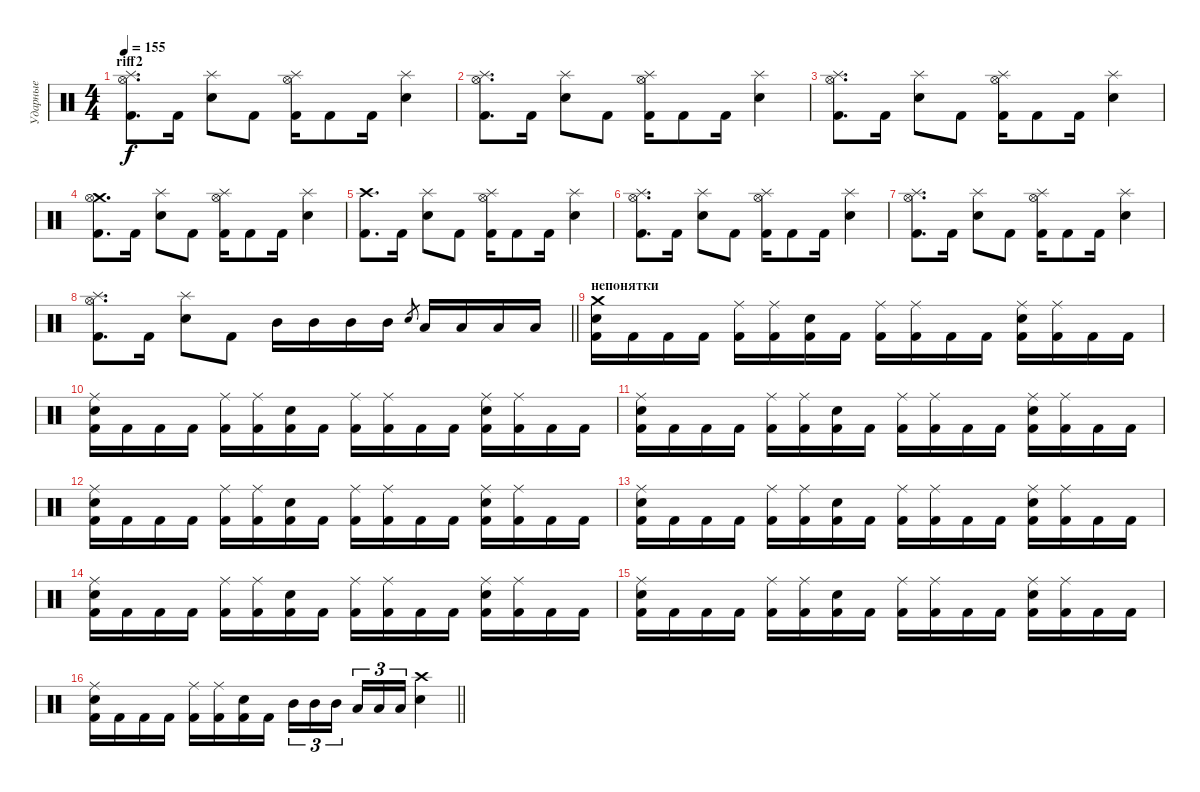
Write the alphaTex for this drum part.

\track ("Ударные" "Ударные") {instrument percussion}
\staff {score}
\articulation defaults
\ts (4 4)
\section ("" "riff2")
\tempo 155
\clef neutral
\ks c
("Splash (hit)" "Hi-Hat (open)" "Kick (hit) 2").8{d dy f} "Kick (hit) 2".16 ("Splash (hit)" "Electric Snare (hit)").8 "Kick (hit) 2".8 ("Splash (hit)" "Hi-Hat (open)" "Kick (hit) 2").16 "Kick (hit) 2".8 "Kick (hit) 2".16 ("Splash (hit)" "Electric Snare (hit)").4 |
("Splash (hit)" "Hi-Hat (open)" "Kick (hit) 2").8{d} "Kick (hit) 2".16 ("Splash (hit)" "Electric Snare (hit)").8 "Kick (hit) 2".8 ("Splash (hit)" "Hi-Hat (open)" "Kick (hit) 2").16 "Kick (hit) 2".8 "Kick (hit) 2".16 ("Splash (hit)" "Electric Snare (hit)").4 |
("Splash (hit)" "Hi-Hat (open)" "Kick (hit) 2").8{d} "Kick (hit) 2".16 ("Splash (hit)" "Electric Snare (hit)").8 "Kick (hit) 2".8 ("Splash (hit)" "Hi-Hat (open)" "Kick (hit) 2").16 "Kick (hit) 2".8 "Kick (hit) 2".16 ("Splash (hit)" "Electric Snare (hit)").4 |
("Crash medium (hit)" "Hi-Hat (open)" "Kick (hit) 2").8{d} "Kick (hit) 2".16 ("Splash (hit)" "Electric Snare (hit)").8 "Kick (hit) 2".8 ("Splash (hit)" "Hi-Hat (open)" "Kick (hit) 2").16 "Kick (hit) 2".8 "Kick (hit) 2".16 ("Splash (hit)" "Electric Snare (hit)").4 |
("Crash high (hit)" "Kick (hit) 2").8{d} "Kick (hit) 2".16 ("Splash (hit)" "Electric Snare (hit)").8 "Kick (hit) 2".8 ("Splash (hit)" "Hi-Hat (open)" "Kick (hit) 2").16 "Kick (hit) 2".8 "Kick (hit) 2".16 ("Splash (hit)" "Electric Snare (hit)").4 |
("Splash (hit)" "Hi-Hat (open)" "Kick (hit) 2").8{d} "Kick (hit) 2".16 ("Splash (hit)" "Electric Snare (hit)").8 "Kick (hit) 2".8 ("Splash (hit)" "Hi-Hat (open)" "Kick (hit) 2").16 "Kick (hit) 2".8 "Kick (hit) 2".16 ("Splash (hit)" "Electric Snare (hit)").4 |
("Splash (hit)" "Hi-Hat (open)" "Kick (hit) 2").8{d} "Kick (hit) 2".16 ("Splash (hit)" "Electric Snare (hit)").8 "Kick (hit) 2".8 ("Splash (hit)" "Hi-Hat (open)" "Kick (hit) 2").16 "Kick (hit) 2".8 "Kick (hit) 2".16 ("Splash (hit)" "Electric Snare (hit)").4 |
\barLineRight lightlight
("Splash (hit)" "Hi-Hat (open)" "Kick (hit) 2").8{d} "Kick (hit) 2".16 ("Splash (hit)" "Electric Snare (hit)").8 "Kick (hit) 2".8 "Mid Tom (hit)".16 "Mid Tom (hit)".16 "Mid Tom (hit)".16 "Mid Tom (hit)".16 "Electric Snare (hit)".8{gr} "Low Tom (hit)".16 "Low Tom (hit)".16 "Low Tom (hit)".16 "Low Tom (hit)".16 |
\section ("" "непонятки")
("Crash medium (hit)" "Electric Snare (hit)" "Kick (hit) 2").16 "Kick (hit) 2".16 "Kick (hit) 2".16 "Kick (hit) 2".16 ("Ride (middle)" "Kick (hit) 2").16 ("Ride (middle)" "Kick (hit) 2").16 ("Electric Snare (hit)" "Kick (hit) 2").16 "Kick (hit) 2".16 ("Ride (middle)" "Kick (hit) 2").16 ("Ride (middle)" "Kick (hit) 2").16 "Kick (hit) 2".16 "Kick (hit) 2".16 ("Ride (middle)" "Electric Snare (hit)" "Kick (hit) 2").16 ("Ride (middle)" "Kick (hit) 2").16 "Kick (hit) 2".16 "Kick (hit) 2".16 |
("Ride (middle)" "Electric Snare (hit)" "Kick (hit) 2").16 "Kick (hit) 2".16 "Kick (hit) 2".16 "Kick (hit) 2".16 ("Ride (middle)" "Kick (hit) 2").16 ("Ride (middle)" "Kick (hit) 2").16 ("Electric Snare (hit)" "Kick (hit) 2").16 "Kick (hit) 2".16 ("Ride (middle)" "Kick (hit) 2").16 ("Ride (middle)" "Kick (hit) 2").16 "Kick (hit) 2".16 "Kick (hit) 2".16 ("Ride (middle)" "Electric Snare (hit)" "Kick (hit) 2").16 ("Ride (middle)" "Kick (hit) 2").16 "Kick (hit) 2".16 "Kick (hit) 2".16 |
("Ride (middle)" "Electric Snare (hit)" "Kick (hit) 2").16 "Kick (hit) 2".16 "Kick (hit) 2".16 "Kick (hit) 2".16 ("Ride (middle)" "Kick (hit) 2").16 ("Ride (middle)" "Kick (hit) 2").16 ("Electric Snare (hit)" "Kick (hit) 2").16 "Kick (hit) 2".16 ("Ride (middle)" "Kick (hit) 2").16 ("Ride (middle)" "Kick (hit) 2").16 "Kick (hit) 2".16 "Kick (hit) 2".16 ("Ride (middle)" "Electric Snare (hit)" "Kick (hit) 2").16 ("Ride (middle)" "Kick (hit) 2").16 "Kick (hit) 2".16 "Kick (hit) 2".16 |
("Ride (middle)" "Electric Snare (hit)" "Kick (hit) 2").16 "Kick (hit) 2".16 "Kick (hit) 2".16 "Kick (hit) 2".16 ("Ride (middle)" "Kick (hit) 2").16 ("Ride (middle)" "Kick (hit) 2").16 ("Electric Snare (hit)" "Kick (hit) 2").16 "Kick (hit) 2".16 ("Ride (middle)" "Kick (hit) 2").16 ("Ride (middle)" "Kick (hit) 2").16 "Kick (hit) 2".16 "Kick (hit) 2".16 ("Ride (middle)" "Electric Snare (hit)" "Kick (hit) 2").16 ("Ride (middle)" "Kick (hit) 2").16 "Kick (hit) 2".16 "Kick (hit) 2".16 |
("Ride (middle)" "Electric Snare (hit)" "Kick (hit) 2").16 "Kick (hit) 2".16 "Kick (hit) 2".16 "Kick (hit) 2".16 ("Ride (middle)" "Kick (hit) 2").16 ("Ride (middle)" "Kick (hit) 2").16 ("Electric Snare (hit)" "Kick (hit) 2").16 "Kick (hit) 2".16 ("Ride (middle)" "Kick (hit) 2").16 ("Ride (middle)" "Kick (hit) 2").16 "Kick (hit) 2".16 "Kick (hit) 2".16 ("Ride (middle)" "Electric Snare (hit)" "Kick (hit) 2").16 ("Ride (middle)" "Kick (hit) 2").16 "Kick (hit) 2".16 "Kick (hit) 2".16 |
("Ride (middle)" "Electric Snare (hit)" "Kick (hit) 2").16 "Kick (hit) 2".16 "Kick (hit) 2".16 "Kick (hit) 2".16 ("Ride (middle)" "Kick (hit) 2").16 ("Ride (middle)" "Kick (hit) 2").16 ("Electric Snare (hit)" "Kick (hit) 2").16 "Kick (hit) 2".16 ("Ride (middle)" "Kick (hit) 2").16 ("Ride (middle)" "Kick (hit) 2").16 "Kick (hit) 2".16 "Kick (hit) 2".16 ("Ride (middle)" "Electric Snare (hit)" "Kick (hit) 2").16 ("Ride (middle)" "Kick (hit) 2").16 "Kick (hit) 2".16 "Kick (hit) 2".16 |
("Ride (middle)" "Electric Snare (hit)" "Kick (hit) 2").16 "Kick (hit) 2".16 "Kick (hit) 2".16 "Kick (hit) 2".16 ("Ride (middle)" "Kick (hit) 2").16 ("Ride (middle)" "Kick (hit) 2").16 ("Electric Snare (hit)" "Kick (hit) 2").16 "Kick (hit) 2".16 ("Ride (middle)" "Kick (hit) 2").16 ("Ride (middle)" "Kick (hit) 2").16 "Kick (hit) 2".16 "Kick (hit) 2".16 ("Ride (middle)" "Electric Snare (hit)" "Kick (hit) 2").16 ("Ride (middle)" "Kick (hit) 2").16 "Kick (hit) 2".16 "Kick (hit) 2".16 |
\barLineRight lightlight
("Ride (middle)" "Electric Snare (hit)" "Kick (hit) 2").16 "Kick (hit) 2".16 "Kick (hit) 2".16 "Kick (hit) 2".16 ("Ride (middle)" "Kick (hit) 2").16 ("Ride (middle)" "Kick (hit) 2").16 ("Electric Snare (hit)" "Kick (hit) 2").16 "Kick (hit) 2".16 "Mid Tom (hit)".16{tu (3 2)} "Mid Tom (hit)".16{tu (3 2)} "Mid Tom (hit)".16{tu (3 2) beam splitsecondary} "Low Tom (hit)".16{tu (3 2)} "Low Tom (hit)".16{tu (3 2)} "Low Tom (hit)".16{tu (3 2)} ("Crash high (hit)" "Electric Snare (hit)").4
